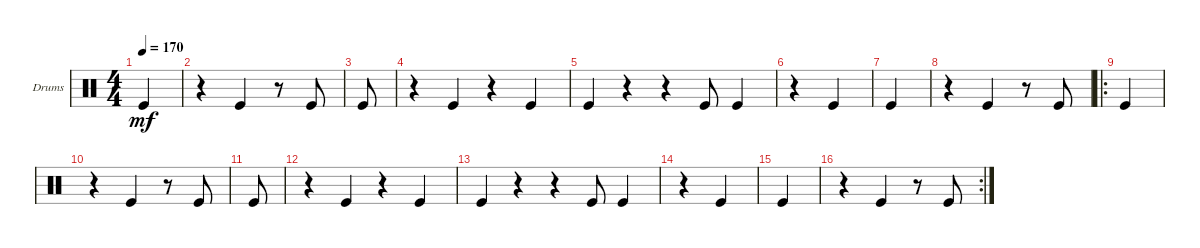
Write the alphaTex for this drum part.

\defaultSystemsLayout 4
\bracketExtendMode groupsimilarinstruments
\firstSystemTrackNameOrientation horizontal
\otherSystemsTrackNameOrientation horizontal
\track ("Drumkit" "Drums") {instrument percussion}
\staff {score}
\articulation defaults
\ts (4 4)
\tempo 170
\clef neutral
\ks c "Kick (hit)".4{dy mf}
|
r.4 "Kick (hit)".4 r.8 "Kick (hit)".8 |
"Kick (hit)".8 |
r.4 "Kick (hit)".4 r.4 "Kick (hit)".4 |
"Kick (hit)".4 r.4 r.4 "Kick (hit)".8 "Kick (hit)".4 |
r.4 "Kick (hit)".4 |
"Kick (hit)".4 |
r.4 "Kick (hit)".4 r.8 "Kick (hit)".8 |
\ro "Kick (hit)".4
|
r.4 "Kick (hit)".4 r.8 "Kick (hit)".8 |
"Kick (hit)".8 |
r.4 "Kick (hit)".4 r.4 "Kick (hit)".4 |
"Kick (hit)".4 r.4 r.4 "Kick (hit)".8 "Kick (hit)".4 |
r.4 "Kick (hit)".4 |
"Kick (hit)".4 |
\rc 2
r.4 "Kick (hit)".4 r.8 "Kick (hit)".8
